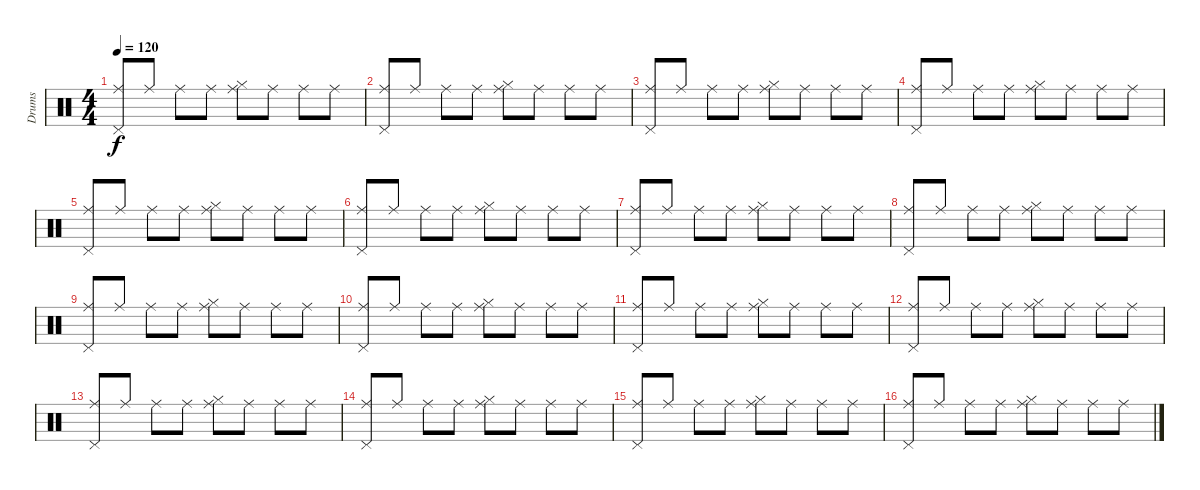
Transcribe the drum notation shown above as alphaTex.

\track ("Drums" "Drums") {instrument percussion}
\staff {score}
\articulation defaults
\ts (4 4)
\tempo 120
\clef neutral
\ks c
("Pedal Hi-Hat (hit)" "Ride (middle)").8{dy f} "Ride (middle)".8 "Ride (middle)".8 "Ride (middle)".8 ("Ride (middle)" "Hi-Hat (closed)").8 "Ride (middle)".8 "Ride (middle)".8 "Ride (middle)".8 |
("Pedal Hi-Hat (hit)" "Ride (middle)").8 "Ride (middle)".8 "Ride (middle)".8 "Ride (middle)".8 ("Ride (middle)" "Hi-Hat (closed)").8 "Ride (middle)".8 "Ride (middle)".8 "Ride (middle)".8 |
("Pedal Hi-Hat (hit)" "Ride (middle)").8 "Ride (middle)".8 "Ride (middle)".8 "Ride (middle)".8 ("Ride (middle)" "Hi-Hat (closed)").8 "Ride (middle)".8 "Ride (middle)".8 "Ride (middle)".8 |
("Pedal Hi-Hat (hit)" "Ride (middle)").8 "Ride (middle)".8 "Ride (middle)".8 "Ride (middle)".8 ("Ride (middle)" "Hi-Hat (closed)").8 "Ride (middle)".8 "Ride (middle)".8 "Ride (middle)".8 |
("Pedal Hi-Hat (hit)" "Ride (middle)").8 "Ride (middle)".8 "Ride (middle)".8 "Ride (middle)".8 ("Ride (middle)" "Hi-Hat (closed)").8 "Ride (middle)".8 "Ride (middle)".8 "Ride (middle)".8 |
("Pedal Hi-Hat (hit)" "Ride (middle)").8 "Ride (middle)".8 "Ride (middle)".8 "Ride (middle)".8 ("Ride (middle)" "Hi-Hat (closed)").8 "Ride (middle)".8 "Ride (middle)".8 "Ride (middle)".8 |
("Pedal Hi-Hat (hit)" "Ride (middle)").8 "Ride (middle)".8 "Ride (middle)".8 "Ride (middle)".8 ("Ride (middle)" "Hi-Hat (closed)").8 "Ride (middle)".8 "Ride (middle)".8 "Ride (middle)".8 |
("Pedal Hi-Hat (hit)" "Ride (middle)").8 "Ride (middle)".8 "Ride (middle)".8 "Ride (middle)".8 ("Ride (middle)" "Hi-Hat (closed)").8 "Ride (middle)".8 "Ride (middle)".8 "Ride (middle)".8 |
("Pedal Hi-Hat (hit)" "Ride (middle)").8 "Ride (middle)".8 "Ride (middle)".8 "Ride (middle)".8 ("Ride (middle)" "Hi-Hat (closed)").8 "Ride (middle)".8 "Ride (middle)".8 "Ride (middle)".8 |
("Pedal Hi-Hat (hit)" "Ride (middle)").8 "Ride (middle)".8 "Ride (middle)".8 "Ride (middle)".8 ("Ride (middle)" "Hi-Hat (closed)").8 "Ride (middle)".8 "Ride (middle)".8 "Ride (middle)".8 |
("Pedal Hi-Hat (hit)" "Ride (middle)").8 "Ride (middle)".8 "Ride (middle)".8 "Ride (middle)".8 ("Ride (middle)" "Hi-Hat (closed)").8 "Ride (middle)".8 "Ride (middle)".8 "Ride (middle)".8 |
("Pedal Hi-Hat (hit)" "Ride (middle)").8 "Ride (middle)".8 "Ride (middle)".8 "Ride (middle)".8 ("Ride (middle)" "Hi-Hat (closed)").8 "Ride (middle)".8 "Ride (middle)".8 "Ride (middle)".8 |
("Pedal Hi-Hat (hit)" "Ride (middle)").8 "Ride (middle)".8 "Ride (middle)".8 "Ride (middle)".8 ("Ride (middle)" "Hi-Hat (closed)").8 "Ride (middle)".8 "Ride (middle)".8 "Ride (middle)".8 |
("Pedal Hi-Hat (hit)" "Ride (middle)").8 "Ride (middle)".8 "Ride (middle)".8 "Ride (middle)".8 ("Ride (middle)" "Hi-Hat (closed)").8 "Ride (middle)".8 "Ride (middle)".8 "Ride (middle)".8 |
("Pedal Hi-Hat (hit)" "Ride (middle)").8 "Ride (middle)".8 "Ride (middle)".8 "Ride (middle)".8 ("Ride (middle)" "Hi-Hat (closed)").8 "Ride (middle)".8 "Ride (middle)".8 "Ride (middle)".8 |
("Pedal Hi-Hat (hit)" "Ride (middle)").8 "Ride (middle)".8 "Ride (middle)".8 "Ride (middle)".8 ("Ride (middle)" "Hi-Hat (closed)").8 "Ride (middle)".8 "Ride (middle)".8 "Ride (middle)".8
